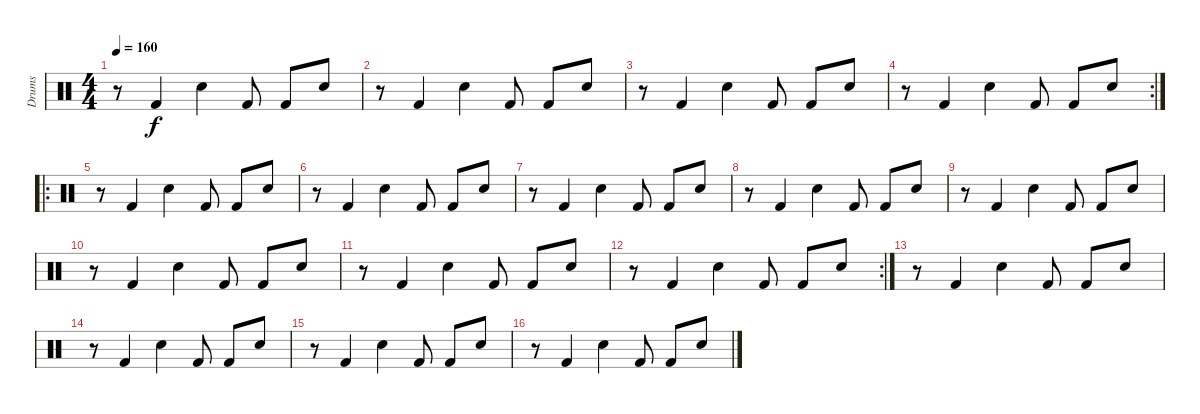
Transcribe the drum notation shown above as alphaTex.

\track ("Drums" "Drums") {instrument percussion}
\staff {score}
\articulation defaults
\ts (4 4)
\tempo 160
\clef neutral
\ks c
r.8{dy f} "Kick (hit) 2".4 "Snare (hit) 2".4 "Kick (hit) 2".8 "Kick (hit) 2".8 "Snare (hit) 2".8 |
r.8 "Kick (hit) 2".4 "Snare (hit) 2".4 "Kick (hit) 2".8 "Kick (hit) 2".8 "Snare (hit) 2".8 |
r.8 "Kick (hit) 2".4 "Snare (hit) 2".4 "Kick (hit) 2".8 "Kick (hit) 2".8 "Snare (hit) 2".8 |
\rc 2
r.8 "Kick (hit) 2".4 "Snare (hit) 2".4 "Kick (hit) 2".8 "Kick (hit) 2".8 "Snare (hit) 2".8 |
\ro
r.8 "Kick (hit) 2".4 "Snare (hit) 2".4 "Kick (hit) 2".8 "Kick (hit) 2".8 "Snare (hit) 2".8 |
r.8 "Kick (hit) 2".4 "Snare (hit) 2".4 "Kick (hit) 2".8 "Kick (hit) 2".8 "Snare (hit) 2".8 |
r.8 "Kick (hit) 2".4 "Snare (hit) 2".4 "Kick (hit) 2".8 "Kick (hit) 2".8 "Snare (hit) 2".8 |
r.8 "Kick (hit) 2".4 "Snare (hit) 2".4 "Kick (hit) 2".8 "Kick (hit) 2".8 "Snare (hit) 2".8 |
r.8 "Kick (hit) 2".4 "Snare (hit) 2".4 "Kick (hit) 2".8 "Kick (hit) 2".8 "Snare (hit) 2".8 |
r.8 "Kick (hit) 2".4 "Snare (hit) 2".4 "Kick (hit) 2".8 "Kick (hit) 2".8 "Snare (hit) 2".8 |
r.8 "Kick (hit) 2".4 "Snare (hit) 2".4 "Kick (hit) 2".8 "Kick (hit) 2".8 "Snare (hit) 2".8 |
\rc 2
r.8 "Kick (hit) 2".4 "Snare (hit) 2".4 "Kick (hit) 2".8 "Kick (hit) 2".8 "Snare (hit) 2".8 |
r.8 "Kick (hit) 2".4 "Snare (hit) 2".4 "Kick (hit) 2".8 "Kick (hit) 2".8 "Snare (hit) 2".8 |
r.8 "Kick (hit) 2".4 "Snare (hit) 2".4 "Kick (hit) 2".8 "Kick (hit) 2".8 "Snare (hit) 2".8 |
r.8 "Kick (hit) 2".4 "Snare (hit) 2".4 "Kick (hit) 2".8 "Kick (hit) 2".8 "Snare (hit) 2".8 |
r.8 "Kick (hit) 2".4 "Snare (hit) 2".4 "Kick (hit) 2".8 "Kick (hit) 2".8 "Snare (hit) 2".8
